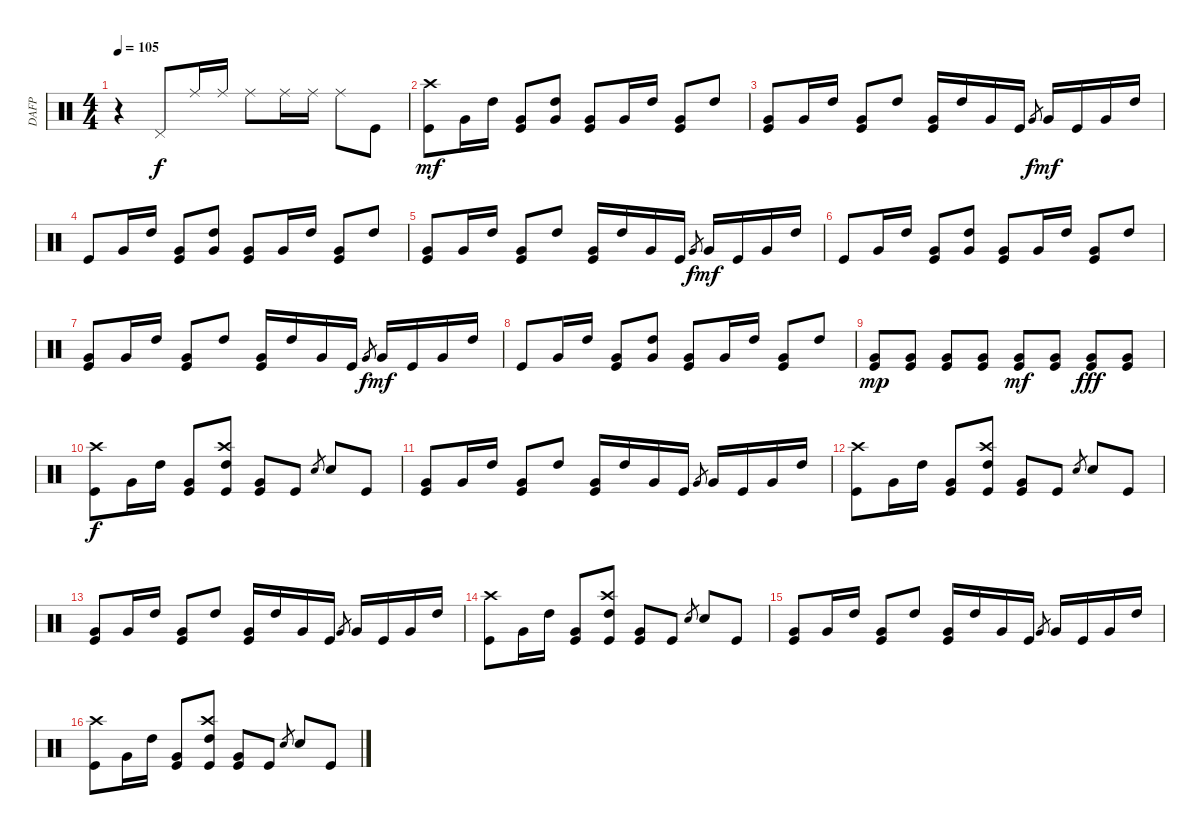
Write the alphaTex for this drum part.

\track ("DAFP" "DAFP") {instrument percussion}
\staff {score}
\articulation defaults
\ts (4 4)
\tempo 105
\clef neutral
\ks c
r.4{dy f} "Pedal Hi-Hat (hit)".8 "Ride (middle)".16 "Ride (middle)".16 "Ride (middle)".8 "Ride (middle)".16 "Ride (middle)".16 "Ride (middle)".8 "Kick (hit)".8 |
("Crash high (hit)" "Kick (hit)").8{dy mf} "Very Low Tom (hit)".16 "High Tom (hit)".16 ("Very Low Tom (hit)" "Kick (hit)").8 ("High Tom (hit)" "Very Low Tom (hit)").8 ("Very Low Tom (hit)" "Kick (hit)").8 "Very Low Tom (hit)".16 "High Tom (hit)".16 ("Very Low Tom (hit)" "Kick (hit)").8 "High Tom (hit)".8 |
("Very Low Tom (hit)" "Kick (hit)").8 "Very Low Tom (hit)".16 "High Tom (hit)".16 ("Very Low Tom (hit)" "Kick (hit)").8 "High Tom (hit)".8 ("Very Low Tom (hit)" "Kick (hit)").16 "High Tom (hit)".16 "Very Low Tom (hit)".16 "Kick (hit)".16 "Very Low Tom (hit)".8{gr dy f} "Very Low Tom (hit)".16{dy mf} "Kick (hit)".16 "Very Low Tom (hit)".16 "High Tom (hit)".16 |
"Kick (hit)".8 "Very Low Tom (hit)".16 "High Tom (hit)".16 ("Very Low Tom (hit)" "Kick (hit)").8 ("High Tom (hit)" "Very Low Tom (hit)").8 ("Very Low Tom (hit)" "Kick (hit)").8 "Very Low Tom (hit)".16 "High Tom (hit)".16 ("Very Low Tom (hit)" "Kick (hit)").8 "High Tom (hit)".8 |
("Very Low Tom (hit)" "Kick (hit)").8 "Very Low Tom (hit)".16 "High Tom (hit)".16 ("Very Low Tom (hit)" "Kick (hit)").8 "High Tom (hit)".8 ("Very Low Tom (hit)" "Kick (hit)").16 "High Tom (hit)".16 "Very Low Tom (hit)".16 "Kick (hit)".16 "Very Low Tom (hit)".8{gr dy f} "Very Low Tom (hit)".16{dy mf} "Kick (hit)".16 "Very Low Tom (hit)".16 "High Tom (hit)".16 |
"Kick (hit)".8 "Very Low Tom (hit)".16 "High Tom (hit)".16 ("Very Low Tom (hit)" "Kick (hit)").8 ("High Tom (hit)" "Very Low Tom (hit)").8 ("Very Low Tom (hit)" "Kick (hit)").8 "Very Low Tom (hit)".16 "High Tom (hit)".16 ("Very Low Tom (hit)" "Kick (hit)").8 "High Tom (hit)".8 |
("Very Low Tom (hit)" "Kick (hit)").8 "Very Low Tom (hit)".16 "High Tom (hit)".16 ("Very Low Tom (hit)" "Kick (hit)").8 "High Tom (hit)".8 ("Very Low Tom (hit)" "Kick (hit)").16 "High Tom (hit)".16 "Very Low Tom (hit)".16 "Kick (hit)".16 "Very Low Tom (hit)".8{gr dy f} "Very Low Tom (hit)".16{dy mf} "Kick (hit)".16 "Very Low Tom (hit)".16 "High Tom (hit)".16 |
"Kick (hit)".8 "Very Low Tom (hit)".16 "High Tom (hit)".16 ("Very Low Tom (hit)" "Kick (hit)").8 ("High Tom (hit)" "Very Low Tom (hit)").8 ("Very Low Tom (hit)" "Kick (hit)").8 "Very Low Tom (hit)".16 "High Tom (hit)".16 ("Very Low Tom (hit)" "Kick (hit)").8 "High Tom (hit)".8 |
("Kick (hit)" "Very Low Tom (hit)").8{dy mp} ("Kick (hit)" "Very Low Tom (hit)").8 ("Kick (hit)" "Very Low Tom (hit)").8 ("Kick (hit)" "Very Low Tom (hit)").8 ("Very Low Tom (hit)" "Kick (hit)").8{dy mf} ("Very Low Tom (hit)" "Kick (hit)").8 ("Very Low Tom (hit)" "Kick (hit)").8{dy fff} ("Very Low Tom (hit)" "Kick (hit)").8 |
("Crash high (hit)" "Kick (hit)").8{dy f} "Very Low Tom (hit)".16 "High Tom (hit)".16 ("Very Low Tom (hit)" "Kick (hit)").8 ("High Tom (hit)" "Kick (hit)" "Crash high (hit)").8 ("Very Low Tom (hit)" "Kick (hit)").8 "Kick (hit)".8 "Snare (hit) 2".8{gr} "Snare (hit) 2".8 "Kick (hit)".8 |
("Very Low Tom (hit)" "Kick (hit)").8 "Very Low Tom (hit)".16 "High Tom (hit)".16 ("Very Low Tom (hit)" "Kick (hit)").8 "High Tom (hit)".8 ("Very Low Tom (hit)" "Kick (hit)").16 "High Tom (hit)".16 "Very Low Tom (hit)".16 "Kick (hit)".16 "Very Low Tom (hit)".8{gr} "Very Low Tom (hit)".16 "Kick (hit)".16 "Very Low Tom (hit)".16 "High Tom (hit)".16 |
("Crash high (hit)" "Kick (hit)").8 "Very Low Tom (hit)".16 "High Tom (hit)".16 ("Very Low Tom (hit)" "Kick (hit)").8 ("High Tom (hit)" "Kick (hit)" "Crash high (hit)").8 ("Very Low Tom (hit)" "Kick (hit)").8 "Kick (hit)".8 "Snare (hit) 2".8{gr} "Snare (hit) 2".8 "Kick (hit)".8 |
("Very Low Tom (hit)" "Kick (hit)").8 "Very Low Tom (hit)".16 "High Tom (hit)".16 ("Very Low Tom (hit)" "Kick (hit)").8 "High Tom (hit)".8 ("Very Low Tom (hit)" "Kick (hit)").16 "High Tom (hit)".16 "Very Low Tom (hit)".16 "Kick (hit)".16 "Very Low Tom (hit)".8{gr} "Very Low Tom (hit)".16 "Kick (hit)".16 "Very Low Tom (hit)".16 "High Tom (hit)".16 |
("Crash high (hit)" "Kick (hit)").8 "Very Low Tom (hit)".16 "High Tom (hit)".16 ("Very Low Tom (hit)" "Kick (hit)").8 ("High Tom (hit)" "Kick (hit)" "Crash high (hit)").8 ("Very Low Tom (hit)" "Kick (hit)").8 "Kick (hit)".8 "Snare (hit) 2".8{gr} "Snare (hit) 2".8 "Kick (hit)".8 |
("Very Low Tom (hit)" "Kick (hit)").8 "Very Low Tom (hit)".16 "High Tom (hit)".16 ("Very Low Tom (hit)" "Kick (hit)").8 "High Tom (hit)".8 ("Very Low Tom (hit)" "Kick (hit)").16 "High Tom (hit)".16 "Very Low Tom (hit)".16 "Kick (hit)".16 "Very Low Tom (hit)".8{gr} "Very Low Tom (hit)".16 "Kick (hit)".16 "Very Low Tom (hit)".16 "High Tom (hit)".16 |
("Crash high (hit)" "Kick (hit)").8 "Very Low Tom (hit)".16 "High Tom (hit)".16 ("Very Low Tom (hit)" "Kick (hit)").8 ("High Tom (hit)" "Kick (hit)" "Crash high (hit)").8 ("Very Low Tom (hit)" "Kick (hit)").8 "Kick (hit)".8 "Snare (hit) 2".8{gr} "Snare (hit) 2".8 "Kick (hit)".8
